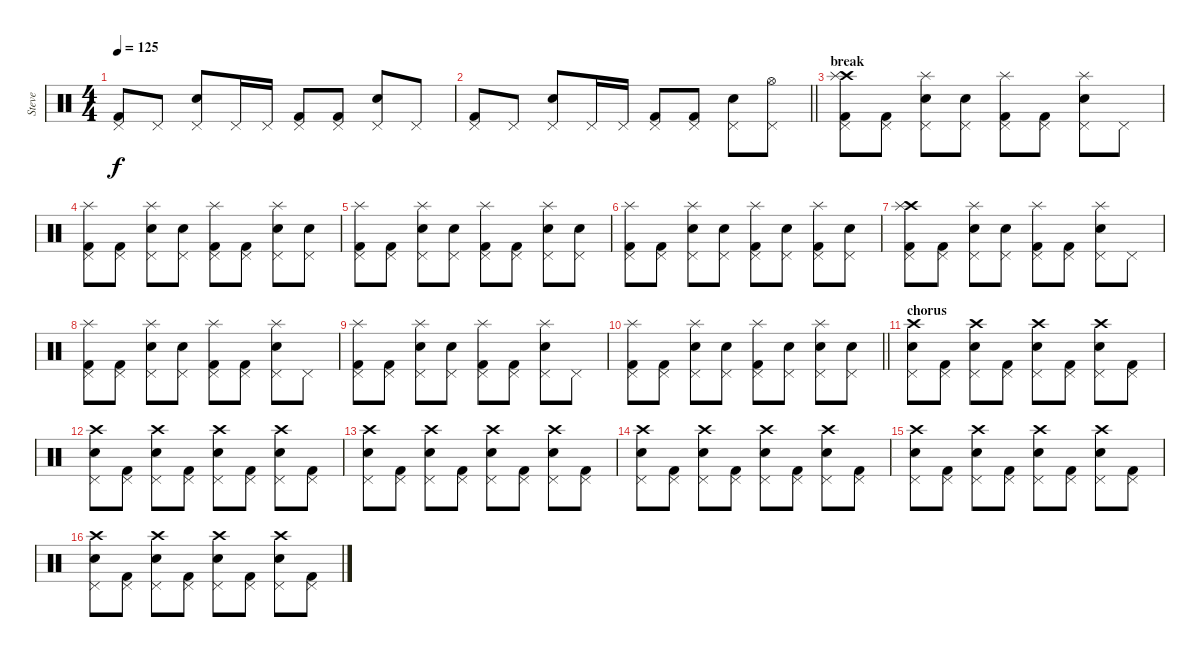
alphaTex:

\track ("Steve" "Steve") {instrument percussion}
\staff {score}
\articulation defaults
\ts (4 4)
\tempo 125
\clef neutral
\ks c
("Pedal Hi-Hat (hit)" "Kick (hit) 2").8{dy f} "Pedal Hi-Hat (hit)".8 ("Pedal Hi-Hat (hit)" "Electric Snare (hit)").8 "Pedal Hi-Hat (hit)".16 "Pedal Hi-Hat (hit)".16 ("Pedal Hi-Hat (hit)" "Kick (hit) 2").8 ("Pedal Hi-Hat (hit)" "Kick (hit) 2").8 ("Pedal Hi-Hat (hit)" "Electric Snare (hit)").8 "Pedal Hi-Hat (hit)".8 |
\barLineRight lightlight
("Pedal Hi-Hat (hit)" "Kick (hit) 2").8 "Pedal Hi-Hat (hit)".8 ("Pedal Hi-Hat (hit)" "Electric Snare (hit)").8 "Pedal Hi-Hat (hit)".16 "Pedal Hi-Hat (hit)".16 ("Pedal Hi-Hat (hit)" "Kick (hit) 2").8 ("Pedal Hi-Hat (hit)" "Kick (hit) 2").8 ("Pedal Hi-Hat (hit)" "Electric Snare (hit)").8 ("Pedal Hi-Hat (hit)" "Hi-Hat (open)").8 |
\section ("" "break")
("Pedal Hi-Hat (hit)" "Crash high (hit)" "Splash (hit)" "Kick (hit) 2").8 ("Pedal Hi-Hat (hit)" "Kick (hit) 2").8 ("Pedal Hi-Hat (hit)" "Splash (hit)" "Electric Snare (hit)").8 ("Pedal Hi-Hat (hit)" "Electric Snare (hit)").8 ("Pedal Hi-Hat (hit)" "Splash (hit)" "Kick (hit) 2").8 ("Pedal Hi-Hat (hit)" "Kick (hit) 2").8 ("Pedal Hi-Hat (hit)" "Splash (hit)" "Electric Snare (hit)").8 "Pedal Hi-Hat (hit)".8 |
("Pedal Hi-Hat (hit)" "Splash (hit)" "Kick (hit) 2").8 ("Pedal Hi-Hat (hit)" "Kick (hit) 2").8 ("Pedal Hi-Hat (hit)" "Splash (hit)" "Electric Snare (hit)").8 ("Pedal Hi-Hat (hit)" "Electric Snare (hit)").8 ("Pedal Hi-Hat (hit)" "Splash (hit)" "Kick (hit) 2").8 ("Pedal Hi-Hat (hit)" "Kick (hit) 2").8 ("Pedal Hi-Hat (hit)" "Splash (hit)" "Electric Snare (hit)").8 ("Pedal Hi-Hat (hit)" "Electric Snare (hit)").8 |
("Pedal Hi-Hat (hit)" "Splash (hit)" "Kick (hit) 2").8 ("Pedal Hi-Hat (hit)" "Kick (hit) 2").8 ("Pedal Hi-Hat (hit)" "Splash (hit)" "Electric Snare (hit)").8 ("Pedal Hi-Hat (hit)" "Electric Snare (hit)").8 ("Pedal Hi-Hat (hit)" "Splash (hit)" "Kick (hit) 2").8 ("Pedal Hi-Hat (hit)" "Kick (hit) 2").8 ("Pedal Hi-Hat (hit)" "Splash (hit)" "Electric Snare (hit)").8 ("Pedal Hi-Hat (hit)" "Electric Snare (hit)").8 |
("Pedal Hi-Hat (hit)" "Splash (hit)" "Kick (hit) 2").8 ("Pedal Hi-Hat (hit)" "Kick (hit) 2").8 ("Pedal Hi-Hat (hit)" "Splash (hit)" "Electric Snare (hit)").8 ("Pedal Hi-Hat (hit)" "Electric Snare (hit)").8 ("Pedal Hi-Hat (hit)" "Splash (hit)" "Kick (hit) 2").8 ("Pedal Hi-Hat (hit)" "Electric Snare (hit)").8 ("Pedal Hi-Hat (hit)" "Splash (hit)" "Kick (hit) 2").8 ("Pedal Hi-Hat (hit)" "Electric Snare (hit)").8 |
("Pedal Hi-Hat (hit)" "Crash high (hit)" "Splash (hit)" "Kick (hit) 2").8 ("Pedal Hi-Hat (hit)" "Kick (hit) 2").8 ("Pedal Hi-Hat (hit)" "Splash (hit)" "Electric Snare (hit)").8 ("Pedal Hi-Hat (hit)" "Electric Snare (hit)").8 ("Pedal Hi-Hat (hit)" "Splash (hit)" "Kick (hit) 2").8 ("Pedal Hi-Hat (hit)" "Kick (hit) 2").8 ("Pedal Hi-Hat (hit)" "Splash (hit)" "Electric Snare (hit)").8 "Pedal Hi-Hat (hit)".8 |
("Pedal Hi-Hat (hit)" "Splash (hit)" "Kick (hit) 2").8 ("Pedal Hi-Hat (hit)" "Kick (hit) 2").8 ("Pedal Hi-Hat (hit)" "Splash (hit)" "Electric Snare (hit)").8 ("Pedal Hi-Hat (hit)" "Electric Snare (hit)").8 ("Pedal Hi-Hat (hit)" "Splash (hit)" "Kick (hit) 2").8 ("Pedal Hi-Hat (hit)" "Kick (hit) 2").8 ("Pedal Hi-Hat (hit)" "Splash (hit)" "Electric Snare (hit)").8 "Pedal Hi-Hat (hit)".8 |
("Pedal Hi-Hat (hit)" "Splash (hit)" "Kick (hit) 2").8 ("Pedal Hi-Hat (hit)" "Kick (hit) 2").8 ("Pedal Hi-Hat (hit)" "Splash (hit)" "Electric Snare (hit)").8 ("Pedal Hi-Hat (hit)" "Electric Snare (hit)").8 ("Pedal Hi-Hat (hit)" "Splash (hit)" "Kick (hit) 2").8 ("Pedal Hi-Hat (hit)" "Kick (hit) 2").8 ("Pedal Hi-Hat (hit)" "Splash (hit)" "Electric Snare (hit)").8 "Pedal Hi-Hat (hit)".8 |
\barLineRight lightlight
("Pedal Hi-Hat (hit)" "Splash (hit)" "Kick (hit) 2").8 ("Pedal Hi-Hat (hit)" "Kick (hit) 2").8 ("Pedal Hi-Hat (hit)" "Splash (hit)" "Electric Snare (hit)").8 ("Pedal Hi-Hat (hit)" "Electric Snare (hit)").8 ("Pedal Hi-Hat (hit)" "Splash (hit)" "Kick (hit) 2").8 ("Pedal Hi-Hat (hit)" "Electric Snare (hit)").8 ("Pedal Hi-Hat (hit)" "Splash (hit)" "Electric Snare (hit)").8 ("Pedal Hi-Hat (hit)" "Electric Snare (hit)").8 |
\section ("" "chorus")
("Crash high (hit)" "Pedal Hi-Hat (hit)" "Electric Snare (hit)").8 ("Pedal Hi-Hat (hit)" "Kick (hit) 2").8 ("Crash high (hit)" "Pedal Hi-Hat (hit)" "Electric Snare (hit)").8 ("Pedal Hi-Hat (hit)" "Kick (hit) 2").8 ("Crash high (hit)" "Pedal Hi-Hat (hit)" "Electric Snare (hit)").8 ("Pedal Hi-Hat (hit)" "Kick (hit) 2").8 ("Crash high (hit)" "Pedal Hi-Hat (hit)" "Electric Snare (hit)").8 ("Pedal Hi-Hat (hit)" "Kick (hit) 2").8 |
("Crash high (hit)" "Pedal Hi-Hat (hit)" "Electric Snare (hit)").8 ("Pedal Hi-Hat (hit)" "Kick (hit) 2").8 ("Crash high (hit)" "Pedal Hi-Hat (hit)" "Electric Snare (hit)").8 ("Pedal Hi-Hat (hit)" "Kick (hit) 2").8 ("Crash high (hit)" "Pedal Hi-Hat (hit)" "Electric Snare (hit)").8 ("Pedal Hi-Hat (hit)" "Kick (hit) 2").8 ("Crash high (hit)" "Pedal Hi-Hat (hit)" "Electric Snare (hit)").8 ("Pedal Hi-Hat (hit)" "Kick (hit) 2").8 |
("Crash high (hit)" "Pedal Hi-Hat (hit)" "Electric Snare (hit)").8 ("Pedal Hi-Hat (hit)" "Kick (hit) 2").8 ("Crash high (hit)" "Pedal Hi-Hat (hit)" "Electric Snare (hit)").8 ("Pedal Hi-Hat (hit)" "Kick (hit) 2").8 ("Crash high (hit)" "Pedal Hi-Hat (hit)" "Electric Snare (hit)").8 ("Pedal Hi-Hat (hit)" "Kick (hit) 2").8 ("Crash high (hit)" "Pedal Hi-Hat (hit)" "Electric Snare (hit)").8 ("Pedal Hi-Hat (hit)" "Kick (hit) 2").8 |
("Crash high (hit)" "Pedal Hi-Hat (hit)" "Electric Snare (hit)").8 ("Pedal Hi-Hat (hit)" "Kick (hit) 2").8 ("Crash high (hit)" "Pedal Hi-Hat (hit)" "Electric Snare (hit)").8 ("Pedal Hi-Hat (hit)" "Kick (hit) 2").8 ("Crash high (hit)" "Pedal Hi-Hat (hit)" "Electric Snare (hit)").8 ("Pedal Hi-Hat (hit)" "Kick (hit) 2").8 ("Crash high (hit)" "Pedal Hi-Hat (hit)" "Electric Snare (hit)").8 ("Pedal Hi-Hat (hit)" "Kick (hit) 2").8 |
("Crash high (hit)" "Pedal Hi-Hat (hit)" "Electric Snare (hit)").8 ("Pedal Hi-Hat (hit)" "Kick (hit) 2").8 ("Crash high (hit)" "Pedal Hi-Hat (hit)" "Electric Snare (hit)").8 ("Pedal Hi-Hat (hit)" "Kick (hit) 2").8 ("Crash high (hit)" "Pedal Hi-Hat (hit)" "Electric Snare (hit)").8 ("Pedal Hi-Hat (hit)" "Kick (hit) 2").8 ("Crash high (hit)" "Pedal Hi-Hat (hit)" "Electric Snare (hit)").8 ("Pedal Hi-Hat (hit)" "Kick (hit) 2").8 |
("Crash high (hit)" "Pedal Hi-Hat (hit)" "Electric Snare (hit)").8 ("Pedal Hi-Hat (hit)" "Kick (hit) 2").8 ("Crash high (hit)" "Pedal Hi-Hat (hit)" "Electric Snare (hit)").8 ("Pedal Hi-Hat (hit)" "Kick (hit) 2").8 ("Crash high (hit)" "Pedal Hi-Hat (hit)" "Electric Snare (hit)").8 ("Pedal Hi-Hat (hit)" "Kick (hit) 2").8 ("Crash high (hit)" "Pedal Hi-Hat (hit)" "Electric Snare (hit)").8 ("Pedal Hi-Hat (hit)" "Kick (hit) 2").8
